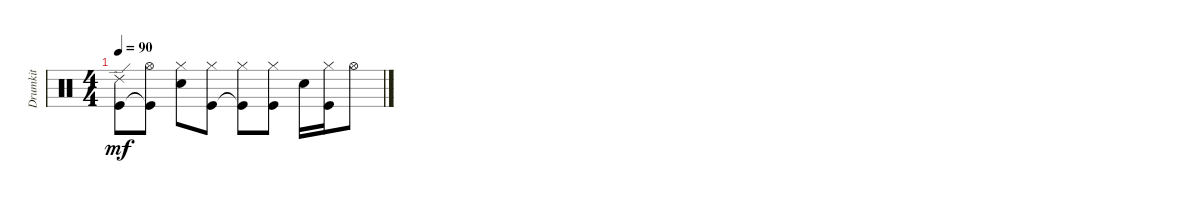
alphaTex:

\track ("Drumkit" "Drumkit") {instrument percussion}
\staff {score}
\articulation defaults
\ts (4 4)
\tempo 90
\clef neutral
\ks c
("Kick (hit)" "Ride (edge) 2").8{dy mf} ("Kick (hit)"{t} "Hi-Hat (open)").8 ("Snare (hit) 2" "Hi-Hat (closed)").8 ("Kick (hit)" "Hi-Hat (closed)").8 ("Kick (hit)"{t} "Hi-Hat (closed)").8 ("Kick (hit)" "Hi-Hat (closed)").8 "Snare (hit) 2".16 ("Kick (hit)" "Hi-Hat (closed)").16 "Hi-Hat (open)".8
